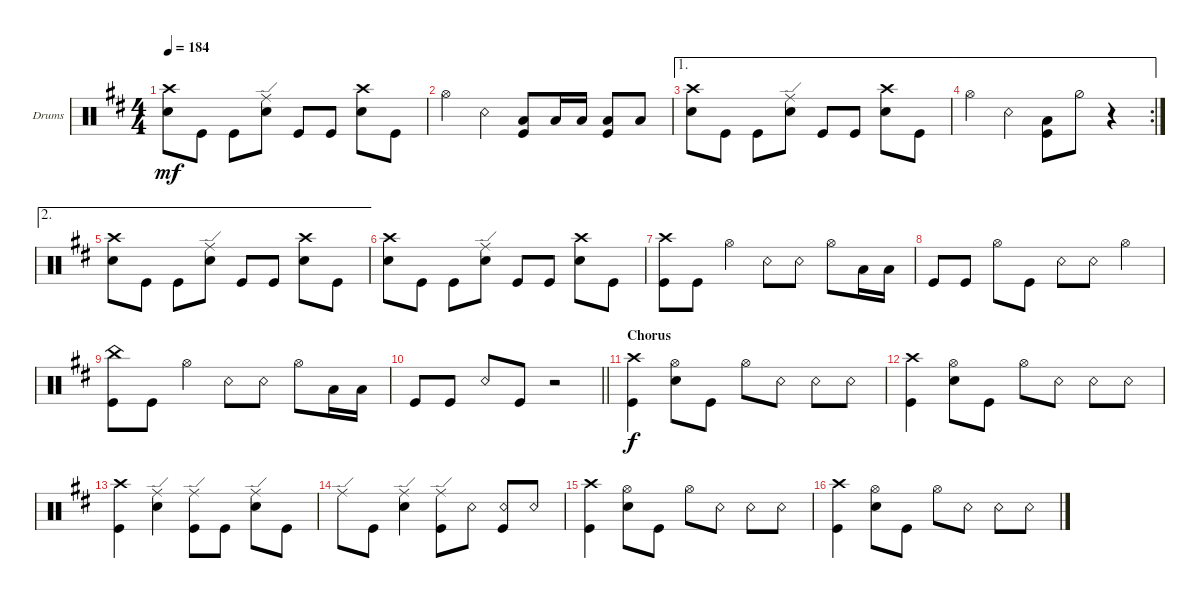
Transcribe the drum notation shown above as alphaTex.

\defaultSystemsLayout 4
\bracketExtendMode groupsimilarinstruments
\firstSystemTrackNameOrientation horizontal
\otherSystemsTrackNameOrientation horizontal
\track ("Drums" "Drums") {instrument percussion}
\staff {score}
\articulation defaults
\ts (4 4)
\tempo 184
\clef neutral
\ks d
("Snare (hit) 2" "Crash high (hit)").8{dy mf} "Kick (hit)".8 "Kick (hit)".8 ("Snare (hit) 2" "Ride (edge)").8 "Kick (hit)".8 "Kick (hit)".8 ("Snare (hit) 2" "Crash high (hit)").8 "Kick (hit)".8 |
"Hi-Hat (open)".4 "Snare (rim shot)".4 ("Low Tom (hit)" "Kick (hit)").8 "Low Tom (hit)".16 "Low Tom (hit)".16 ("Low Tom (hit)" "Kick (hit)").8 "Low Tom (hit)".8 |
\ae 1
("Snare (hit) 2" "Crash high (hit)").8 "Kick (hit)".8 "Kick (hit)".8 ("Snare (hit) 2" "Ride (edge)").8 "Kick (hit)".8 "Kick (hit)".8 ("Snare (hit) 2" "Crash high (hit)").8 "Kick (hit)".8 |
\ae 1
\rc 2 "Hi-Hat (open)".4 "Snare (rim shot)".4
("Low Tom (hit)" "Kick (hit)").8 "Hi-Hat (half)".8 r.4 |
\ae 2
("Snare (hit) 2" "Crash high (hit)").8 "Kick (hit)".8 "Kick (hit)".8 ("Snare (hit) 2" "Ride (edge)").8 "Kick (hit)".8 "Kick (hit)".8 ("Snare (hit) 2" "Crash high (hit)").8 "Kick (hit)".8 |
("Snare (hit) 2" "Crash high (hit)").8 "Kick (hit)".8 "Kick (hit)".8 ("Snare (hit) 2" "Ride (edge)").8 "Kick (hit)".8 "Kick (hit)".8 ("Snare (hit) 2" "Crash high (hit)").8 "Kick (hit)".8 |
("Kick (hit)" "Crash high (hit)").8 "Kick (hit)".8 "Hi-Hat (open)".4 "Snare (rim shot)".8 "Snare (rim shot)".8 "Hi-Hat (open)".8 "Low Tom (hit)".16 "Low Tom (hit)".16 |
"Kick (hit)".8 "Kick (hit)".8 "Hi-Hat (open)".8 "Kick (hit)".8 "Snare (rim shot)".8 "Snare (rim shot)".8 "Hi-Hat (open)".4 |
("Kick (hit)" "China (hit)").8 "Kick (hit)".8 "Hi-Hat (open)".4 "Snare (rim shot)".8 "Snare (rim shot)".8 "Hi-Hat (open)".8 "Low Tom (hit)".16 "Low Tom (hit)".16 |
\barLineRight lightlight "Kick (hit)".8 "Kick (hit)".8 "Snare (rim shot)".8 "Kick (hit)".8
r.2 |
\section ("" "Chorus")
("Kick (hit)" "Crash high (hit)").4{dy f} ("Hi-Hat (open)" "Snare (hit) 2").8 "Kick (hit)".8 "Hi-Hat (open)".8 "Snare (rim shot)".8 "Snare (rim shot)".8 "Snare (rim shot)".8 |
("Kick (hit)" "Crash high (hit)").4 ("Hi-Hat (open)" "Snare (hit) 2").8 "Kick (hit)".8 "Hi-Hat (open)".8 "Snare (rim shot)".8 "Snare (rim shot)".8 "Snare (rim shot)".8 |
("Kick (hit)" "Crash high (hit)").4 ("Ride (edge)" "Snare (hit) 2").4 ("Kick (hit)" "Ride (edge)").8 "Kick (hit)".8 ("Snare (hit) 2" "Ride (edge)").8 "Kick (hit)".8 |
"Ride (edge)".8 "Kick (hit)".8 ("Snare (hit) 2" "Ride (edge)").4 ("Kick (hit)" "Ride (edge)").8 "Snare (rim shot)".8 ("Snare (rim shot)" "Kick (hit)").8 "Snare (rim shot)".8 |
("Kick (hit)" "Crash high (hit)").4 ("Hi-Hat (open)" "Snare (hit) 2").8 "Kick (hit)".8 "Hi-Hat (open)".8 "Snare (rim shot)".8 "Snare (rim shot)".8 "Snare (rim shot)".8 |
("Kick (hit)" "Crash high (hit)").4 ("Hi-Hat (open)" "Snare (hit) 2").8 "Kick (hit)".8 "Hi-Hat (open)".8 "Snare (rim shot)".8 "Snare (rim shot)".8 "Snare (rim shot)".8
